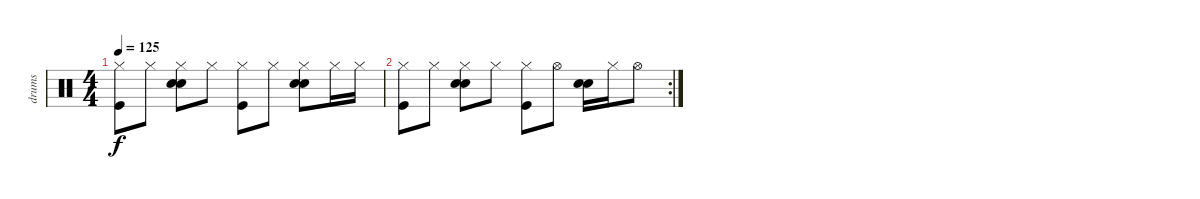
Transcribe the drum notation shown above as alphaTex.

\track ("drums" "drums") {instrument percussion}
\staff {score}
\articulation defaults
\ts (4 4)
\tempo 125
\clef neutral
\ks c
("Hi-Hat (closed)" "Kick (hit)").8{dy f} "Hi-Hat (closed)".8 ("Hi-Hat (closed)" "Hand Clap (hit)" "Electric Snare (hit)").8 "Hi-Hat (closed)".8 ("Hi-Hat (closed)" "Kick (hit)").8 "Hi-Hat (closed)".8 ("Hi-Hat (closed)" "Hand Clap (hit)" "Electric Snare (hit)").8 "Hi-Hat (closed)".16 "Hi-Hat (closed)".16 |
\rc 2
("Hi-Hat (closed)" "Kick (hit)").8 "Hi-Hat (closed)".8 ("Hi-Hat (closed)" "Hand Clap (hit)" "Electric Snare (hit)").8 "Hi-Hat (closed)".8 ("Hi-Hat (closed)" "Kick (hit)").8 "Hi-Hat (open)".8 ("Hand Clap (hit)" "Electric Snare (hit)").16 "Hi-Hat (closed)".16 "Hi-Hat (open)".8
